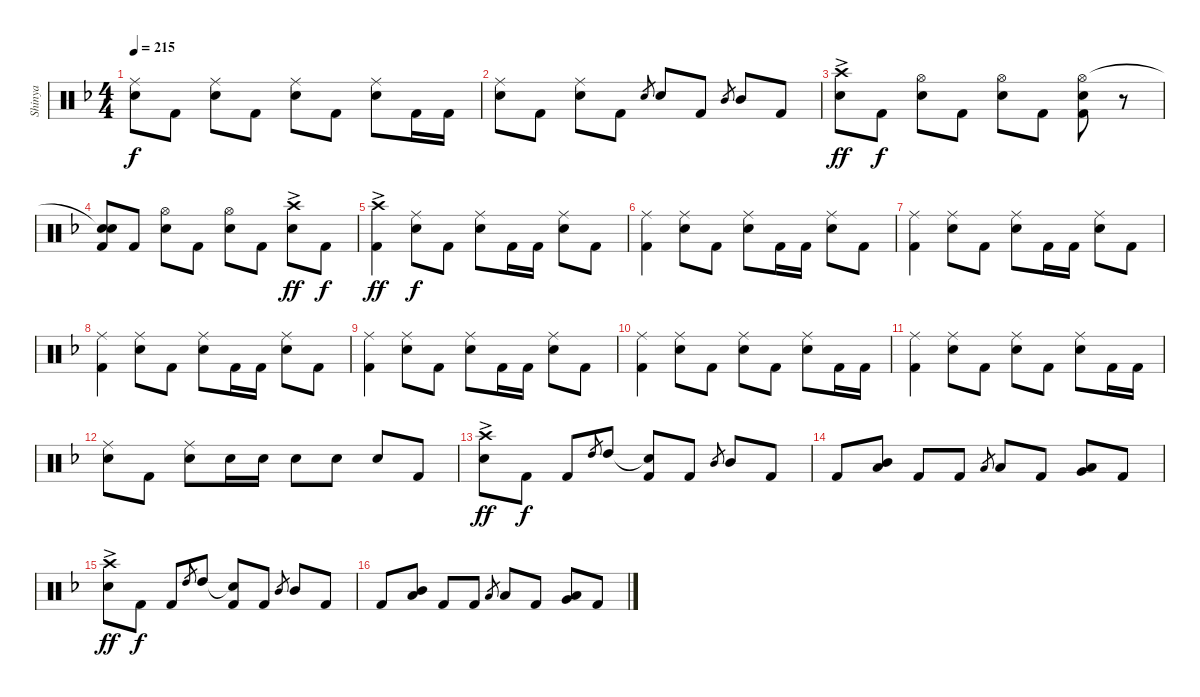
\track ("Shinya" "Shinya") {instrument percussion}
\staff {score}
\articulation defaults
\ts (4 4)
\tempo 215
\clef neutral
\ks f
("Ride (middle)" "Snare (hit) 2").8{dy f} "Kick (hit) 2".8 ("Ride (middle)" "Snare (hit) 2").8 "Kick (hit) 2".8 ("Ride (middle)" "Snare (hit) 2").8 "Kick (hit) 2".8 ("Ride (middle)" "Snare (hit) 2").8 "Kick (hit) 2".16 "Kick (hit) 2".16 |
("Ride (middle)" "Snare (hit) 2").8 "Kick (hit) 2".8 ("Ride (middle)" "Snare (hit) 2").8 "Kick (hit) 2".8 "Snare (hit) 2".8{gr} "Snare (hit) 2".8 "Kick (hit) 2".8 "Mid Tom (hit)".8{gr} "Mid Tom (hit)".8 "Kick (hit) 2".8 |
("Crash high (hit)"{ac} "Snare (hit) 2").8{dy ff} "Kick (hit) 2".8{dy f} ("Hi-Hat (open)" "Snare (hit) 2").8 "Kick (hit) 2".8 ("Hi-Hat (open)" "Snare (hit) 2").8 "Kick (hit) 2".8 ("Hi-Hat (open)" "Snare (hit) 2" "Kick (hit) 2").8 r.8 |
("Snare (hit)"{t} "Snare (hit) 2" "Kick (hit) 2").8 "Kick (hit) 2".8 ("Hi-Hat (open)" "Snare (hit) 2").8 "Kick (hit) 2".8 ("Hi-Hat (open)" "Snare (hit) 2").8 "Kick (hit) 2".8 ("Crash high (hit)"{ac} "Snare (hit) 2").8{dy ff} "Kick (hit) 2".8{dy f} |
("Crash high (hit)"{ac} "Kick (hit) 2").4{dy ff} ("Ride (middle)" "Snare (hit) 2").8{dy f} "Kick (hit) 2".8 ("Ride (middle)" "Snare (hit) 2").8 "Kick (hit) 2".16 "Kick (hit) 2".16 ("Ride (middle)" "Snare (hit) 2").8 "Kick (hit) 2".8 |
("Ride (middle)" "Kick (hit) 2").4 ("Ride (middle)" "Snare (hit) 2").8 "Kick (hit) 2".8 ("Ride (middle)" "Snare (hit) 2").8 "Kick (hit) 2".16 "Kick (hit) 2".16 ("Ride (middle)" "Snare (hit) 2").8 "Kick (hit) 2".8 |
("Ride (middle)" "Kick (hit) 2").4 ("Ride (middle)" "Snare (hit) 2").8 "Kick (hit) 2".8 ("Ride (middle)" "Snare (hit) 2").8 "Kick (hit) 2".16 "Kick (hit) 2".16 ("Ride (middle)" "Snare (hit) 2").8 "Kick (hit) 2".8 |
("Ride (middle)" "Kick (hit) 2").4 ("Ride (middle)" "Snare (hit) 2").8 "Kick (hit) 2".8 ("Ride (middle)" "Snare (hit) 2").8 "Kick (hit) 2".16 "Kick (hit) 2".16 ("Ride (middle)" "Snare (hit) 2").8 "Kick (hit) 2".8 |
("Ride (middle)" "Kick (hit) 2").4 ("Ride (middle)" "Snare (hit) 2").8 "Kick (hit) 2".8 ("Ride (middle)" "Snare (hit) 2").8 "Kick (hit) 2".16 "Kick (hit) 2".16 ("Ride (middle)" "Snare (hit) 2").8 "Kick (hit) 2".8 |
("Ride (middle)" "Kick (hit) 2").4 ("Ride (middle)" "Snare (hit) 2").8 "Kick (hit) 2".8 ("Ride (middle)" "Snare (hit) 2").8 "Kick (hit) 2".8 ("Ride (middle)" "Snare (hit) 2").8 "Kick (hit) 2".16 "Kick (hit) 2".16 |
("Ride (middle)" "Kick (hit) 2").4 ("Ride (middle)" "Snare (hit) 2").8 "Kick (hit) 2".8 ("Ride (middle)" "Snare (hit) 2").8 "Kick (hit) 2".8 ("Ride (middle)" "Snare (hit) 2").8 "Kick (hit) 2".16 "Kick (hit) 2".16 |
("Ride (middle)" "Snare (hit) 2").8 "Kick (hit) 2".8 ("Ride (middle)" "Snare (hit) 2").8 "Snare (hit) 2".16 "Snare (hit) 2".16 "Snare (hit) 2".8 "Snare (hit) 2".8 "Snare (hit) 2".8 "Kick (hit) 2".8 |
("Crash high (hit)"{ac} "Snare (hit) 2").8{dy ff} "Kick (hit) 2".8{dy f} "Kick (hit) 2".8 "High Tom (hit)".8{gr} "High Tom (hit)".8 ("Snare (hit)"{t} "Kick (hit) 2").8 "Kick (hit) 2".8 "Mid Tom (hit)".8{gr} "Mid Tom (hit)".8 "Kick (hit) 2".8 |
"Kick (hit) 2".8 ("Mid Tom (hit)" "Low Tom (hit)").8 "Kick (hit) 2".8 "Kick (hit) 2".8 "Low Tom (hit)".8{gr} "Low Tom (hit)".8 "Kick (hit) 2".8 ("Low Tom (hit)" "Very Low Tom (hit)").8 "Kick (hit) 2".8 |
("Crash high (hit)"{ac} "Snare (hit) 2").8{dy ff} "Kick (hit) 2".8{dy f} "Kick (hit) 2".8 "High Tom (hit)".8{gr} "High Tom (hit)".8 ("Snare (hit)"{t} "Kick (hit) 2").8 "Kick (hit) 2".8 "Mid Tom (hit)".8{gr} "Mid Tom (hit)".8 "Kick (hit) 2".8 |
"Kick (hit) 2".8 ("Mid Tom (hit)" "Low Tom (hit)").8 "Kick (hit) 2".8 "Kick (hit) 2".8 "Low Tom (hit)".8{gr} "Low Tom (hit)".8 "Kick (hit) 2".8 ("Low Tom (hit)" "Very Low Tom (hit)").8 "Kick (hit) 2".8
